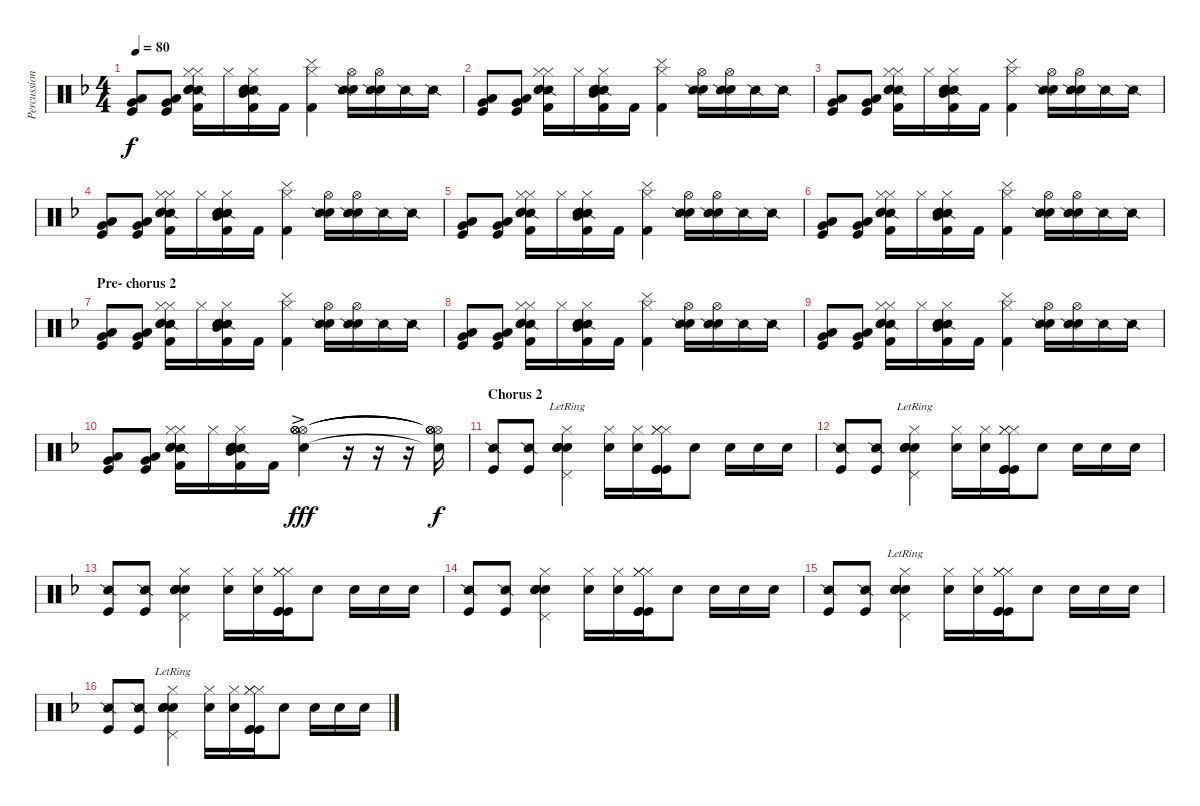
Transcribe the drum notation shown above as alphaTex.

\track ("Percussion" "Percussion") {instrument percussion}
\staff {score}
\articulation defaults
\ts (4 4)
\tempo 80
\clef neutral
\ks dminor
("Kick (hit)" "Low Floor Tom (hit)" "Very Low Tom (hit)").8{dy f} ("Kick (hit)" "Low Floor Tom (hit)" "Very Low Tom (hit)").8 ("Kick (hit) 2" "Hi-Hat (closed)" "Snare (side stick) 2" "Snare (hit) 2" "Electric Snare (hit)" "Hi-Hat (closed)").16 "Hi-Hat (closed)".16 ("Kick (hit) 2" "Hi-Hat (closed)" "Snare (side stick) 2" "Snare (hit) 2" "Electric Snare (hit)" "Mid Tom (hit)").16 "Kick (hit) 2".16 ("Kick (hit) 2" "Hi-Hat (closed)" "Cymbal (hit)").4 ("Electric Snare (hit)" "Hi-Hat (open)" "Snare (side stick) 2").16 ("Electric Snare (hit)" "Hi-Hat (open)" "Snare (side stick) 2").16 "Snare (side stick) 2".16 "Snare (side stick) 2".16 |
("Kick (hit)" "Low Floor Tom (hit)" "Very Low Tom (hit)").8 ("Kick (hit)" "Low Floor Tom (hit)" "Very Low Tom (hit)").8 ("Kick (hit) 2" "Hi-Hat (closed)" "Snare (side stick) 2" "Snare (hit) 2" "Electric Snare (hit)" "Hi-Hat (closed)").16 "Hi-Hat (closed)".16 ("Kick (hit) 2" "Hi-Hat (closed)" "Snare (side stick) 2" "Snare (hit) 2" "Electric Snare (hit)" "Mid Tom (hit)").16 "Kick (hit) 2".16 ("Kick (hit) 2" "Hi-Hat (closed)" "Cymbal (hit)").4 ("Electric Snare (hit)" "Hi-Hat (open)" "Snare (side stick) 2").16 ("Electric Snare (hit)" "Hi-Hat (open)" "Snare (side stick) 2").16 "Snare (side stick) 2".16 "Snare (side stick) 2".16 |
("Kick (hit)" "Low Floor Tom (hit)" "Very Low Tom (hit)").8 ("Kick (hit)" "Low Floor Tom (hit)" "Very Low Tom (hit)").8 ("Kick (hit) 2" "Hi-Hat (closed)" "Snare (side stick) 2" "Snare (hit) 2" "Electric Snare (hit)" "Hi-Hat (closed)").16 "Hi-Hat (closed)".16 ("Kick (hit) 2" "Hi-Hat (closed)" "Snare (side stick) 2" "Snare (hit) 2" "Electric Snare (hit)" "Mid Tom (hit)").16 "Kick (hit) 2".16 ("Kick (hit) 2" "Hi-Hat (closed)" "Cymbal (hit)").4 ("Electric Snare (hit)" "Hi-Hat (open)" "Snare (side stick) 2").16 ("Electric Snare (hit)" "Hi-Hat (open)" "Snare (side stick) 2").16 "Snare (side stick) 2".16 "Snare (side stick) 2".16 |
("Kick (hit)" "Low Floor Tom (hit)" "Very Low Tom (hit)").8 ("Kick (hit)" "Low Floor Tom (hit)" "Very Low Tom (hit)").8 ("Kick (hit) 2" "Hi-Hat (closed)" "Snare (side stick) 2" "Snare (hit) 2" "Electric Snare (hit)" "Hi-Hat (closed)").16 "Hi-Hat (closed)".16 ("Kick (hit) 2" "Hi-Hat (closed)" "Snare (side stick) 2" "Snare (hit) 2" "Electric Snare (hit)" "Mid Tom (hit)").16 "Kick (hit) 2".16 ("Kick (hit) 2" "Hi-Hat (closed)" "Cymbal (hit)").4 ("Electric Snare (hit)" "Hi-Hat (open)" "Snare (side stick) 2").16 ("Electric Snare (hit)" "Hi-Hat (open)" "Snare (side stick) 2").16 "Snare (side stick) 2".16 "Snare (side stick) 2".16 |
("Kick (hit)" "Low Floor Tom (hit)" "Very Low Tom (hit)").8 ("Kick (hit)" "Low Floor Tom (hit)" "Very Low Tom (hit)").8 ("Kick (hit) 2" "Hi-Hat (closed)" "Snare (side stick) 2" "Snare (hit) 2" "Electric Snare (hit)" "Hi-Hat (closed)").16 "Hi-Hat (closed)".16 ("Kick (hit) 2" "Hi-Hat (closed)" "Snare (side stick) 2" "Snare (hit) 2" "Electric Snare (hit)" "Mid Tom (hit)").16 "Kick (hit) 2".16 ("Kick (hit) 2" "Hi-Hat (closed)" "Cymbal (hit)").4 ("Electric Snare (hit)" "Hi-Hat (open)" "Snare (side stick) 2").16 ("Electric Snare (hit)" "Hi-Hat (open)" "Snare (side stick) 2").16 "Snare (side stick) 2".16 "Snare (side stick) 2".16 |
("Kick (hit)" "Low Floor Tom (hit)" "Very Low Tom (hit)").8 ("Kick (hit)" "Low Floor Tom (hit)" "Very Low Tom (hit)").8 ("Kick (hit) 2" "Hi-Hat (closed)" "Snare (side stick) 2" "Snare (hit) 2" "Electric Snare (hit)" "Hi-Hat (closed)").16 "Hi-Hat (closed)".16 ("Kick (hit) 2" "Hi-Hat (closed)" "Snare (side stick) 2" "Snare (hit) 2" "Electric Snare (hit)" "Mid Tom (hit)").16 "Kick (hit) 2".16 ("Kick (hit) 2" "Hi-Hat (closed)" "Cymbal (hit)").4 ("Electric Snare (hit)" "Hi-Hat (open)" "Snare (side stick) 2").16 ("Electric Snare (hit)" "Hi-Hat (open)" "Snare (side stick) 2").16 "Snare (side stick) 2".16 "Snare (side stick) 2".16 |
\section ("" "Pre- chorus 2")
("Kick (hit)" "Low Floor Tom (hit)" "Very Low Tom (hit)").8 ("Kick (hit)" "Low Floor Tom (hit)" "Very Low Tom (hit)").8 ("Kick (hit) 2" "Hi-Hat (closed)" "Snare (side stick) 2" "Snare (hit) 2" "Electric Snare (hit)" "Hi-Hat (closed)").16 "Hi-Hat (closed)".16 ("Kick (hit) 2" "Hi-Hat (closed)" "Snare (side stick) 2" "Snare (hit) 2" "Electric Snare (hit)" "Mid Tom (hit)").16 "Kick (hit) 2".16 ("Kick (hit) 2" "Hi-Hat (closed)" "Cymbal (hit)").4 ("Electric Snare (hit)" "Hi-Hat (open)" "Snare (side stick) 2").16 ("Electric Snare (hit)" "Hi-Hat (open)" "Snare (side stick) 2").16 "Snare (side stick) 2".16 "Snare (side stick) 2".16 |
("Kick (hit)" "Low Floor Tom (hit)" "Very Low Tom (hit)").8 ("Kick (hit)" "Low Floor Tom (hit)" "Very Low Tom (hit)").8 ("Kick (hit) 2" "Hi-Hat (closed)" "Snare (side stick) 2" "Snare (hit) 2" "Electric Snare (hit)" "Hi-Hat (closed)").16 "Hi-Hat (closed)".16 ("Kick (hit) 2" "Hi-Hat (closed)" "Snare (side stick) 2" "Snare (hit) 2" "Electric Snare (hit)" "Mid Tom (hit)").16 "Kick (hit) 2".16 ("Kick (hit) 2" "Hi-Hat (closed)" "Cymbal (hit)").4 ("Electric Snare (hit)" "Hi-Hat (open)" "Snare (side stick) 2").16 ("Electric Snare (hit)" "Hi-Hat (open)" "Snare (side stick) 2").16 "Snare (side stick) 2".16 "Snare (side stick) 2".16 |
("Kick (hit)" "Low Floor Tom (hit)" "Very Low Tom (hit)").8 ("Kick (hit)" "Low Floor Tom (hit)" "Very Low Tom (hit)").8 ("Kick (hit) 2" "Hi-Hat (closed)" "Snare (side stick) 2" "Snare (hit) 2" "Electric Snare (hit)" "Hi-Hat (closed)").16 "Hi-Hat (closed)".16 ("Kick (hit) 2" "Hi-Hat (closed)" "Snare (side stick) 2" "Snare (hit) 2" "Electric Snare (hit)" "Mid Tom (hit)").16 "Kick (hit) 2".16 ("Kick (hit) 2" "Hi-Hat (closed)" "Cymbal (hit)").4 ("Electric Snare (hit)" "Hi-Hat (open)" "Snare (side stick) 2").16 ("Electric Snare (hit)" "Hi-Hat (open)" "Snare (side stick) 2").16 "Snare (side stick) 2".16 "Snare (side stick) 2".16 |
("Kick (hit)" "Low Floor Tom (hit)" "Very Low Tom (hit)").8 ("Kick (hit)" "Low Floor Tom (hit)" "Very Low Tom (hit)").8 ("Kick (hit) 2" "Hi-Hat (closed)" "Snare (side stick) 2" "Snare (hit) 2" "Electric Snare (hit)" "Hi-Hat (closed)").16 "Hi-Hat (closed)".16 ("Kick (hit) 2" "Hi-Hat (closed)" "Snare (side stick) 2" "Snare (hit) 2" "Electric Snare (hit)" "Mid Tom (hit)").16 "Kick (hit) 2".16 ("Electric Snare (hit)"{ac} "Hi-Hat (open)"{ac} "Hi-Hat (open)"{ac} "Hi-Hat (open)"{ac} "Hi-Hat (open)"{ac}).4{dy fff} r.16 r.16 r.16 ("Electric Snare (hit)"{t} "Hi-Hat (open)"{t} "Hi-Hat (open)"{t} "Hi-Hat (open)"{t} "Hi-Hat (open)"{t}).16{dy f} |
\section ("" "Chorus 2")
("Kick (hit)" "Snare (side stick) 2").8{volume 13} ("Kick (hit)" "Snare (side stick) 2").8 ("Snare (hit) 2"{lr} "Snare (hit) 2"{lr} "Pedal Hi-Hat (hit)"{lr} "Hi-Hat (closed)"{lr} "Electric Snare (hit)"{lr} "Hand Clap (hit)"{lr}).4 ("Hi-Hat (closed)" "Electric Snare (hit)").16 ("Hi-Hat (closed)" "Electric Snare (hit)").16 ("Hi-Hat (closed)" "Hi-Hat (closed)" "Hi-Hat (closed)" "Kick (hit)" "Kick (hit)" "Kick (hit)").16 "Hand Clap (hit)".8 "Snare (hit) 2".16 "Snare (hit) 2".16 "Snare (hit) 2".16 |
("Kick (hit)" "Snare (side stick) 2").8{volume 14} ("Kick (hit)" "Snare (side stick) 2").8 ("Snare (hit) 2"{lr} "Snare (hit) 2"{lr} "Pedal Hi-Hat (hit)"{lr} "Hi-Hat (closed)"{lr} "Electric Snare (hit)"{lr} "Hand Clap (hit)"{lr}).4 ("Hi-Hat (closed)" "Electric Snare (hit)").16 ("Hi-Hat (closed)" "Electric Snare (hit)").16 ("Hi-Hat (closed)" "Hi-Hat (closed)" "Hi-Hat (closed)" "Kick (hit)" "Kick (hit)" "Kick (hit)").16 "Hand Clap (hit)".8 "Snare (hit) 2".16 "Snare (hit) 2".16 "Snare (hit) 2".16 |
("Kick (hit)" "Snare (side stick) 2").8{volume 14} ("Kick (hit)" "Snare (side stick) 2").8 ("Snare (hit) 2" "Snare (hit) 2" "Pedal Hi-Hat (hit)" "Hi-Hat (closed)" "Electric Snare (hit)" "Hand Clap (hit)").4 ("Hi-Hat (closed)" "Electric Snare (hit)").16 ("Hi-Hat (closed)" "Electric Snare (hit)").16 ("Hi-Hat (closed)" "Hi-Hat (closed)" "Hi-Hat (closed)" "Kick (hit)" "Kick (hit)" "Kick (hit)").16 "Hand Clap (hit)".8 "Snare (hit) 2".16 "Snare (hit) 2".16 "Snare (hit) 2".16 |
("Kick (hit)" "Snare (side stick) 2").8{volume 14} ("Kick (hit)" "Snare (side stick) 2").8 ("Snare (hit) 2" "Snare (hit) 2" "Pedal Hi-Hat (hit)" "Hi-Hat (closed)" "Electric Snare (hit)" "Hand Clap (hit)").4 ("Hi-Hat (closed)" "Electric Snare (hit)").16 ("Hi-Hat (closed)" "Electric Snare (hit)").16 ("Hi-Hat (closed)" "Hi-Hat (closed)" "Hi-Hat (closed)" "Kick (hit)" "Kick (hit)" "Kick (hit)").16 "Hand Clap (hit)".8 "Snare (hit) 2".16 "Snare (hit) 2".16 "Snare (hit) 2".16 |
("Kick (hit)" "Snare (side stick) 2").8{volume 14} ("Kick (hit)" "Snare (side stick) 2").8 ("Snare (hit) 2"{lr} "Snare (hit) 2"{lr} "Pedal Hi-Hat (hit)"{lr} "Hi-Hat (closed)"{lr} "Electric Snare (hit)"{lr} "Hand Clap (hit)"{lr}).4 ("Hi-Hat (closed)" "Electric Snare (hit)").16 ("Hi-Hat (closed)" "Electric Snare (hit)").16 ("Hi-Hat (closed)" "Hi-Hat (closed)" "Hi-Hat (closed)" "Kick (hit)" "Kick (hit)" "Kick (hit)").16 "Hand Clap (hit)".8 "Snare (hit) 2".16 "Snare (hit) 2".16 "Snare (hit) 2".16 |
("Kick (hit)" "Snare (side stick) 2").8{volume 14} ("Kick (hit)" "Snare (side stick) 2").8 ("Snare (hit) 2"{lr} "Snare (hit) 2"{lr} "Pedal Hi-Hat (hit)"{lr} "Hi-Hat (closed)"{lr} "Electric Snare (hit)"{lr} "Hand Clap (hit)"{lr}).4 ("Hi-Hat (closed)" "Electric Snare (hit)").16 ("Hi-Hat (closed)" "Electric Snare (hit)").16 ("Hi-Hat (closed)" "Hi-Hat (closed)" "Hi-Hat (closed)" "Kick (hit)" "Kick (hit)" "Kick (hit)").16 "Hand Clap (hit)".8 "Snare (hit) 2".16 "Snare (hit) 2".16 "Snare (hit) 2".16
